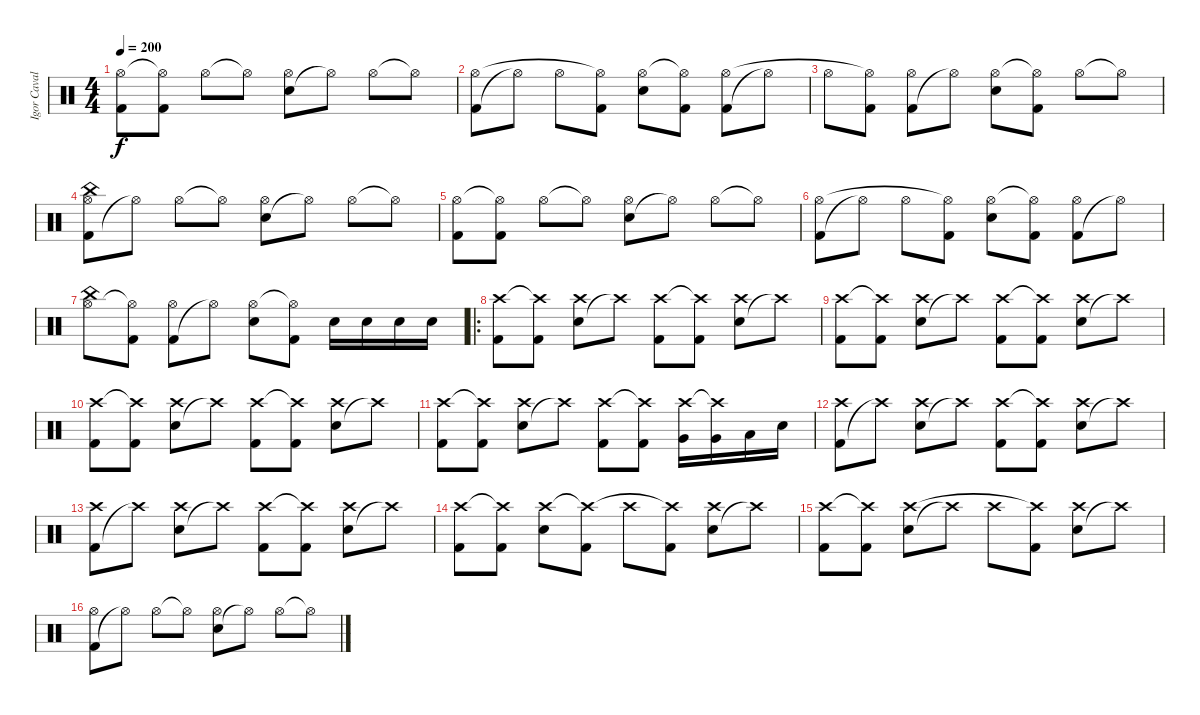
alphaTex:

\track ("Igor Cavalera" "Igor Caval") {instrument percussion}
\staff {score}
\articulation defaults
\ts (4 4)
\tempo 200
\clef neutral
\ks c
("Kick (hit) 2" "Hi-Hat (open)").8{dy f} ("Kick (hit) 2" "Hi-Hat (open)"{t}).8 "Hi-Hat (open)".8 "Hi-Hat (open)"{t}.8 ("Snare (hit) 2" "Hi-Hat (open)").8 "Hi-Hat (open)"{t}.8 "Hi-Hat (open)".8 "Hi-Hat (open)"{t}.8 |
("Kick (hit) 2" "Hi-Hat (open)").8 "Hi-Hat (open)"{t}.8 "Hi-Hat (open)".8 ("Kick (hit) 2" "Hi-Hat (open)"{t}).8 ("Snare (hit) 2" "Hi-Hat (open)").8 ("Kick (hit) 2" "Hi-Hat (open)"{t}).8 ("Kick (hit) 2" "Hi-Hat (open)").8 "Hi-Hat (open)"{t}.8 |
"Hi-Hat (open)".8 ("Kick (hit) 2" "Hi-Hat (open)"{t}).8 ("Kick (hit) 2" "Hi-Hat (open)").8 "Hi-Hat (open)"{t}.8 ("Snare (hit) 2" "Hi-Hat (open)").8 ("Kick (hit) 2" "Hi-Hat (open)"{t}).8 "Hi-Hat (open)".8 "Hi-Hat (open)"{t}.8 |
("Kick (hit) 2" "China (hit)" "Hi-Hat (open)").8 "Hi-Hat (open)"{t}.8 "Hi-Hat (open)".8 "Hi-Hat (open)"{t}.8 ("Snare (hit) 2" "Hi-Hat (open)").8 "Hi-Hat (open)"{t}.8 "Hi-Hat (open)".8 "Hi-Hat (open)"{t}.8 |
("Kick (hit) 2" "Hi-Hat (open)").8 ("Kick (hit) 2" "Hi-Hat (open)"{t}).8 "Hi-Hat (open)".8 "Hi-Hat (open)"{t}.8 ("Snare (hit) 2" "Hi-Hat (open)").8 "Hi-Hat (open)"{t}.8 "Hi-Hat (open)".8 "Hi-Hat (open)"{t}.8 |
("Kick (hit) 2" "Hi-Hat (open)").8 "Hi-Hat (open)"{t}.8 "Hi-Hat (open)".8 ("Kick (hit) 2" "Hi-Hat (open)"{t}).8 ("Snare (hit) 2" "Hi-Hat (open)").8 ("Kick (hit) 2" "Hi-Hat (open)"{t}).8 ("Kick (hit) 2" "Hi-Hat (open)").8 "Hi-Hat (open)"{t}.8 |
("China (hit)" "Hi-Hat (open)").8 ("Kick (hit) 2" "Hi-Hat (open)"{t}).8 ("Kick (hit) 2" "Hi-Hat (open)").8 "Hi-Hat (open)"{t}.8 ("Snare (hit) 2" "Hi-Hat (open)").8 ("Kick (hit) 2" "Hi-Hat (open)"{t}).8 "Snare (hit) 2".16 "Snare (hit) 2".16 "Snare (hit) 2".16 "Snare (hit) 2".16 |
\ro
("Kick (hit) 2" "Crash high (hit)").8 ("Kick (hit) 2" "Crash high (hit)"{t}).8 ("Snare (hit) 2" "Crash high (hit)").8 "Crash high (hit)"{t}.8 ("Kick (hit) 2" "Crash high (hit)").8 ("Kick (hit) 2" "Crash high (hit)"{t}).8 ("Snare (hit) 2" "Crash high (hit)").8 "Crash high (hit)"{t}.8 |
("Kick (hit) 2" "Crash high (hit)").8 ("Kick (hit) 2" "Crash high (hit)"{t}).8 ("Snare (hit) 2" "Crash high (hit)").8 "Crash high (hit)"{t}.8 ("Kick (hit) 2" "Crash high (hit)").8 ("Kick (hit) 2" "Crash high (hit)"{t}).8 ("Snare (hit) 2" "Crash high (hit)").8 "Crash high (hit)"{t}.8 |
("Kick (hit) 2" "Crash high (hit)").8 ("Kick (hit) 2" "Crash high (hit)"{t}).8 ("Snare (hit) 2" "Crash high (hit)").8 "Crash high (hit)"{t}.8 ("Kick (hit) 2" "Crash high (hit)").8 ("Kick (hit) 2" "Crash high (hit)"{t}).8 ("Snare (hit) 2" "Crash high (hit)").8 "Crash high (hit)"{t}.8 |
("Kick (hit) 2" "Crash high (hit)").8 ("Kick (hit) 2" "Crash high (hit)"{t}).8 ("Snare (hit) 2" "Crash high (hit)").8 "Crash high (hit)"{t}.8 ("Kick (hit) 2" "Crash high (hit)").8 ("Kick (hit) 2" "Crash high (hit)"{t}).8 ("Very Low Tom (hit)" "Crash high (hit)").16 ("Very Low Tom (hit)" "Crash high (hit)"{t}).16 "Low Floor Tom (hit)".16 "Snare (hit) 2".16 |
("Kick (hit) 2" "Crash high (hit)").8 "Crash high (hit)"{t}.8 ("Snare (hit) 2" "Crash high (hit)").8 "Crash high (hit)"{t}.8 ("Kick (hit) 2" "Crash high (hit)").8 ("Kick (hit) 2" "Crash high (hit)"{t}).8 ("Snare (hit) 2" "Crash high (hit)").8 "Crash high (hit)"{t}.8 |
("Kick (hit) 2" "Crash high (hit)").8 "Crash high (hit)"{t}.8 ("Snare (hit) 2" "Crash high (hit)").8 "Crash high (hit)"{t}.8 ("Kick (hit) 2" "Crash high (hit)").8 ("Kick (hit) 2" "Crash high (hit)"{t}).8 ("Snare (hit) 2" "Crash high (hit)").8 "Crash high (hit)"{t}.8 |
("Kick (hit) 2" "Crash high (hit)").8 ("Kick (hit) 2" "Crash high (hit)"{t}).8 ("Snare (hit) 2" "Crash high (hit)").8 ("Kick (hit) 2" "Crash high (hit)"{t}).8 "Crash high (hit)".8 ("Kick (hit) 2" "Crash high (hit)"{t}).8 ("Snare (hit) 2" "Crash high (hit)").8 "Crash high (hit)"{t}.8 |
("Kick (hit) 2" "Crash high (hit)").8 ("Kick (hit) 2" "Crash high (hit)"{t}).8 ("Snare (hit) 2" "Crash high (hit)").8 "Crash high (hit)"{t}.8 "Crash high (hit)".8 ("Kick (hit) 2" "Crash high (hit)"{t}).8 ("Snare (hit) 2" "Crash high (hit)").8 "Crash high (hit)"{t}.8 |
("Kick (hit) 2" "Hi-Hat (open)").8 "Hi-Hat (open)"{t}.8 "Hi-Hat (open)".8 "Hi-Hat (open)"{t}.8 ("Snare (hit) 2" "Hi-Hat (open)").8 "Hi-Hat (open)"{t}.8 "Hi-Hat (open)".8 "Hi-Hat (open)"{t}.8
